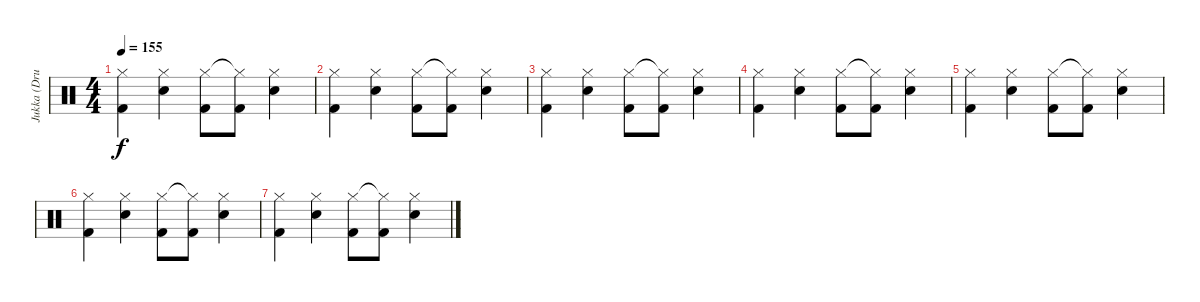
\track ("Jukka (Drums)" "Jukka (Dru") {instrument percussion}
\staff {score}
\articulation defaults
\ts (4 4)
\tempo 155
\clef neutral
\ks c
("Hi-Hat (closed)" "Kick (hit) 2").4{dy f} ("Hi-Hat (closed)" "Snare (hit) 2").4 ("Hi-Hat (closed)" "Kick (hit) 2").8 ("Hi-Hat (closed)"{t} "Kick (hit) 2").8 ("Hi-Hat (closed)" "Snare (hit) 2").4 |
("Hi-Hat (closed)" "Kick (hit) 2").4 ("Hi-Hat (closed)" "Snare (hit) 2").4 ("Hi-Hat (closed)" "Kick (hit) 2").8 ("Hi-Hat (closed)"{t} "Kick (hit) 2").8 ("Hi-Hat (closed)" "Snare (hit) 2").4 |
("Hi-Hat (closed)" "Kick (hit) 2").4 ("Hi-Hat (closed)" "Snare (hit) 2").4 ("Hi-Hat (closed)" "Kick (hit) 2").8 ("Hi-Hat (closed)"{t} "Kick (hit) 2").8 ("Hi-Hat (closed)" "Snare (hit) 2").4 |
("Hi-Hat (closed)" "Kick (hit) 2").4 ("Hi-Hat (closed)" "Snare (hit) 2").4 ("Hi-Hat (closed)" "Kick (hit) 2").8 ("Hi-Hat (closed)"{t} "Kick (hit) 2").8 ("Hi-Hat (closed)" "Snare (hit) 2").4 |
("Hi-Hat (closed)" "Kick (hit) 2").4 ("Hi-Hat (closed)" "Snare (hit) 2").4 ("Hi-Hat (closed)" "Kick (hit) 2").8 ("Hi-Hat (closed)"{t} "Kick (hit) 2").8 ("Hi-Hat (closed)" "Snare (hit) 2").4 |
("Hi-Hat (closed)" "Kick (hit) 2").4 ("Hi-Hat (closed)" "Snare (hit) 2").4 ("Hi-Hat (closed)" "Kick (hit) 2").8 ("Hi-Hat (closed)"{t} "Kick (hit) 2").8 ("Hi-Hat (closed)" "Snare (hit) 2").4 |
("Hi-Hat (closed)" "Kick (hit) 2").4 ("Hi-Hat (closed)" "Snare (hit) 2").4 ("Hi-Hat (closed)" "Kick (hit) 2").8 ("Hi-Hat (closed)"{t} "Kick (hit) 2").8 ("Hi-Hat (closed)" "Snare (hit) 2").4
